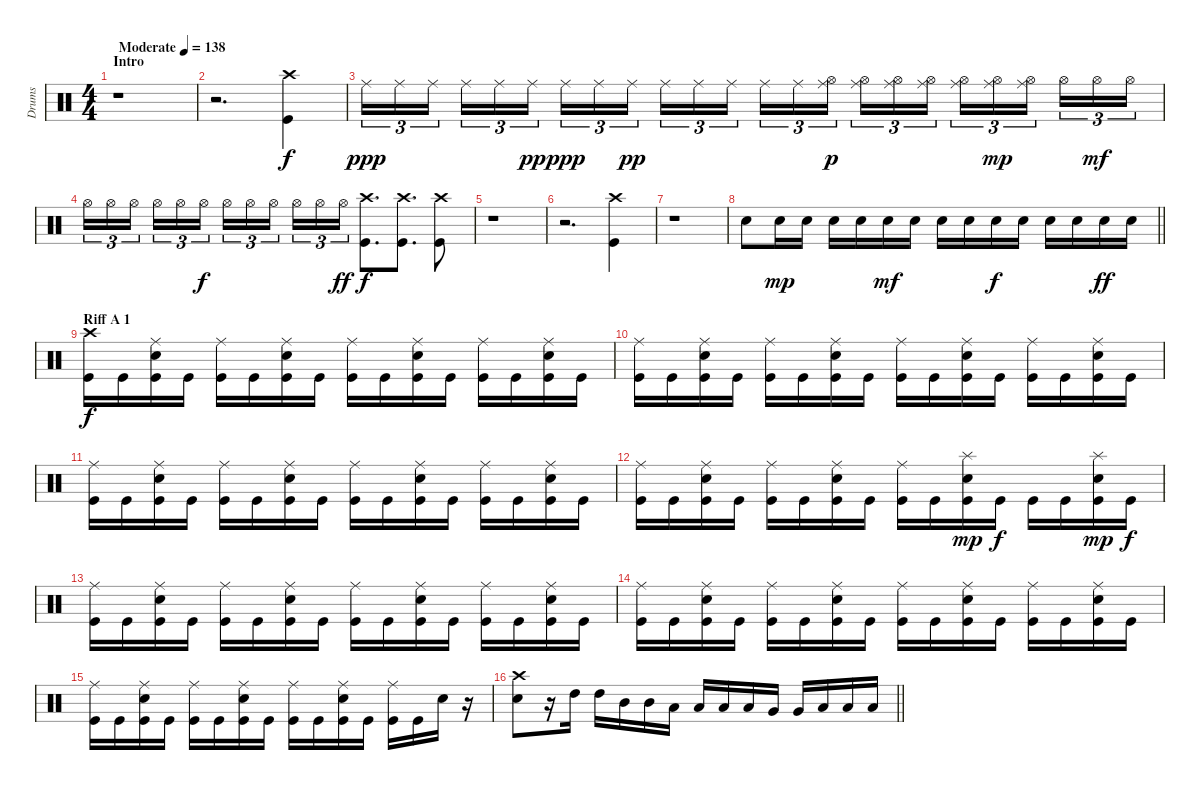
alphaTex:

\track ("Drums" "Drums") {instrument percussion}
\staff {score}
\articulation defaults
\ts (4 4)
\section ("" "Intro")
\tempo (138 "Moderate")
\clef neutral
\ks c
r.1{dy f} |
r.2{d} ("Crash high (hit)" "Kick (hit)").4 |
"Ride (middle)".16{tu (3 2) dy ppp} "Ride (middle)".16{tu (3 2)} "Ride (middle)".16{tu (3 2) beam splitsecondary} "Ride (middle)".16{tu (3 2)} "Ride (middle)".16{tu (3 2)} "Ride (middle)".16{tu (3 2) dy pp} "Ride (middle)".16{tu (3 2) dy ppp} "Ride (middle)".16{tu (3 2)} "Ride (middle)".16{tu (3 2) dy pp beam splitsecondary} "Ride (middle)".16{tu (3 2)} "Ride (middle)".16{tu (3 2)} "Ride (middle)".16{tu (3 2)} "Ride (middle)".16{tu (3 2)} "Ride (middle)".16{tu (3 2)} ("Hi-Hat (open)" "Ride (middle)").16{tu (3 2) dy p beam splitsecondary} ("Hi-Hat (open)" "Ride (middle)").16{tu (3 2)} ("Hi-Hat (open)" "Ride (middle)").16{tu (3 2)} ("Hi-Hat (open)" "Ride (middle)").16{tu (3 2)} ("Hi-Hat (open)" "Ride (middle)").16{tu (3 2)} ("Hi-Hat (open)" "Ride (middle)").16{tu (3 2) dy mp} ("Hi-Hat (open)" "Ride (middle)").16{tu (3 2) beam splitsecondary} "Hi-Hat (open)".16{tu (3 2)} "Hi-Hat (open)".16{tu (3 2) dy mf} "Hi-Hat (open)".16{tu (3 2)} |
"Hi-Hat (open)".16{tu (3 2)} "Hi-Hat (open)".16{tu (3 2)} "Hi-Hat (open)".16{tu (3 2) beam splitsecondary} "Hi-Hat (open)".16{tu (3 2)} "Hi-Hat (open)".16{tu (3 2)} "Hi-Hat (open)".16{tu (3 2) dy f} "Hi-Hat (open)".16{tu (3 2)} "Hi-Hat (open)".16{tu (3 2)} "Hi-Hat (open)".16{tu (3 2) beam splitsecondary} "Hi-Hat (open)".16{tu (3 2)} "Hi-Hat (open)".16{tu (3 2)} "Hi-Hat (open)".16{tu (3 2) dy ff} ("Crash high (hit)" "Kick (hit)").8{d dy f} ("Crash high (hit)" "Kick (hit)").8{d} ("Crash high (hit)" "Kick (hit)").8 |
r.1 |
r.2{d} ("Crash high (hit)" "Kick (hit)").4 |
r.1 |
\barLineRight lightlight "Electric Snare (hit)".8 "Electric Snare (hit)".16{dy mp} "Electric Snare (hit)".16 "Electric Snare (hit)".16 "Electric Snare (hit)".16 "Electric Snare (hit)".16{dy mf} "Electric Snare (hit)".16 "Electric Snare (hit)".16 "Electric Snare (hit)".16 "Electric Snare (hit)".16{dy f} "Electric Snare (hit)".16 "Electric Snare (hit)".16 "Electric Snare (hit)".16 "Electric Snare (hit)".16{dy ff} "Electric Snare (hit)".16
|
\section ("" "Riff A 1")
("Crash high (hit)" "Kick (hit)").16{dy f} "Kick (hit)".16 ("Ride (middle)" "Electric Snare (hit)" "Kick (hit)").16 "Kick (hit)".16 ("Ride (middle)" "Kick (hit)").16 "Kick (hit)".16 ("Ride (middle)" "Electric Snare (hit)" "Kick (hit)").16 "Kick (hit)".16 ("Ride (middle)" "Kick (hit)").16 "Kick (hit)".16 ("Ride (middle)" "Electric Snare (hit)" "Kick (hit)").16 "Kick (hit)".16 ("Ride (middle)" "Kick (hit)").16 "Kick (hit)".16 ("Ride (middle)" "Electric Snare (hit)" "Kick (hit)").16 "Kick (hit)".16 |
("Ride (middle)" "Kick (hit)").16 "Kick (hit)".16 ("Ride (middle)" "Electric Snare (hit)" "Kick (hit)").16 "Kick (hit)".16 ("Ride (middle)" "Kick (hit)").16 "Kick (hit)".16 ("Ride (middle)" "Electric Snare (hit)" "Kick (hit)").16 "Kick (hit)".16 ("Ride (middle)" "Kick (hit)").16 "Kick (hit)".16 ("Ride (middle)" "Electric Snare (hit)" "Kick (hit)").16 "Kick (hit)".16 ("Ride (middle)" "Kick (hit)").16 "Kick (hit)".16 ("Ride (middle)" "Electric Snare (hit)" "Kick (hit)").16 "Kick (hit)".16 |
("Ride (middle)" "Kick (hit)").16 "Kick (hit)".16 ("Ride (middle)" "Electric Snare (hit)" "Kick (hit)").16 "Kick (hit)".16 ("Ride (middle)" "Kick (hit)").16 "Kick (hit)".16 ("Ride (middle)" "Electric Snare (hit)" "Kick (hit)").16 "Kick (hit)".16 ("Ride (middle)" "Kick (hit)").16 "Kick (hit)".16 ("Ride (middle)" "Electric Snare (hit)" "Kick (hit)").16 "Kick (hit)".16 ("Ride (middle)" "Kick (hit)").16 "Kick (hit)".16 ("Ride (middle)" "Electric Snare (hit)" "Kick (hit)").16 "Kick (hit)".16 |
("Ride (middle)" "Kick (hit)").16 "Kick (hit)".16 ("Ride (middle)" "Electric Snare (hit)" "Kick (hit)").16 "Kick (hit)".16 ("Ride (middle)" "Kick (hit)").16 "Kick (hit)".16 ("Ride (middle)" "Electric Snare (hit)" "Kick (hit)").16 "Kick (hit)".16 ("Ride (middle)" "Kick (hit)").16 "Kick (hit)".16 ("Splash (hit)" "Electric Snare (hit)" "Kick (hit)").16{dy mp} "Kick (hit)".16{dy f} "Kick (hit)".16 "Kick (hit)".16 ("Splash (hit)" "Electric Snare (hit)" "Kick (hit)").16{dy mp} "Kick (hit)".16{dy f} |
("Ride (middle)" "Kick (hit)").16 "Kick (hit)".16 ("Ride (middle)" "Electric Snare (hit)" "Kick (hit)").16 "Kick (hit)".16 ("Ride (middle)" "Kick (hit)").16 "Kick (hit)".16 ("Ride (middle)" "Electric Snare (hit)" "Kick (hit)").16 "Kick (hit)".16 ("Ride (middle)" "Kick (hit)").16 "Kick (hit)".16 ("Ride (middle)" "Electric Snare (hit)" "Kick (hit)").16 "Kick (hit)".16 ("Ride (middle)" "Kick (hit)").16 "Kick (hit)".16 ("Ride (middle)" "Electric Snare (hit)" "Kick (hit)").16 "Kick (hit)".16 |
("Ride (middle)" "Kick (hit)").16 "Kick (hit)".16 ("Ride (middle)" "Electric Snare (hit)" "Kick (hit)").16 "Kick (hit)".16 ("Ride (middle)" "Kick (hit)").16 "Kick (hit)".16 ("Ride (middle)" "Electric Snare (hit)" "Kick (hit)").16 "Kick (hit)".16 ("Ride (middle)" "Kick (hit)").16 "Kick (hit)".16 ("Ride (middle)" "Electric Snare (hit)" "Kick (hit)").16 "Kick (hit)".16 ("Ride (middle)" "Kick (hit)").16 "Kick (hit)".16 ("Ride (middle)" "Electric Snare (hit)" "Kick (hit)").16 "Kick (hit)".16 |
("Ride (middle)" "Kick (hit)").16 "Kick (hit)".16 ("Ride (middle)" "Electric Snare (hit)" "Kick (hit)").16 "Kick (hit)".16 ("Ride (middle)" "Kick (hit)").16 "Kick (hit)".16 ("Ride (middle)" "Electric Snare (hit)" "Kick (hit)").16 "Kick (hit)".16 ("Ride (middle)" "Kick (hit)").16 "Kick (hit)".16 ("Ride (middle)" "Electric Snare (hit)" "Kick (hit)").16 "Kick (hit)".16 ("Ride (middle)" "Kick (hit)").16 "Kick (hit)".16 "Electric Snare (hit)".16 r.16 |
\barLineRight lightlight
("Crash high (hit)" "Electric Snare (hit)").8 r.16 "High Tom (hit)".16 "High Tom (hit)".16 "Mid Tom (hit)".16 "Mid Tom (hit)".16 "Low Tom (hit)".16 "Low Tom (hit)".16 "Low Tom (hit)".16 "Low Tom (hit)".16 "Very Low Tom (hit)".16 "Very Low Tom (hit)".16 "Low Floor Tom (hit)".16 "Low Floor Tom (hit)".16 "Low Floor Tom (hit)".16
